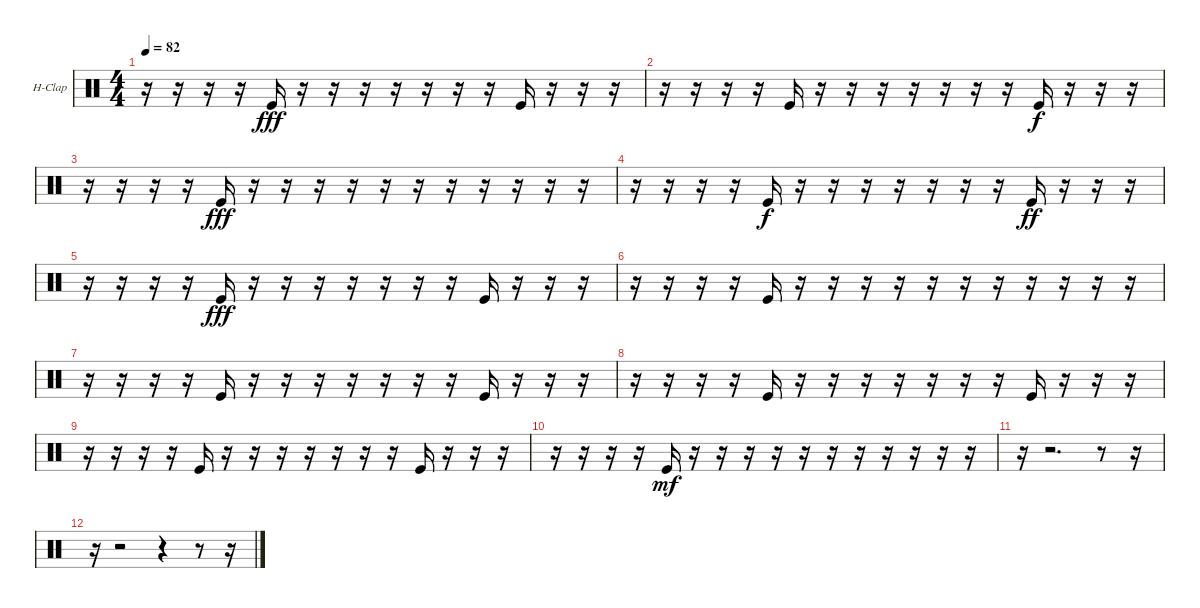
\bracketExtendMode groupsimilarinstruments
\firstSystemTrackNameOrientation horizontal
\otherSystemsTrackNameOrientation horizontal
\track ("Hand Clap" "H-Clap") {instrument percussion}
\staff {score}
\articulation defaults
\ts (4 4)
\tempo 82
\clef neutral
\ks c
r.16{dy mf} r.16 r.16 r.16 "Kick (hit)".16{dy fff} r.16 r.16 r.16 r.16 r.16 r.16 r.16 "Kick (hit)".16 r.16 r.16 r.16 |
r.16 r.16 r.16 r.16 "Kick (hit)".16 r.16 r.16 r.16 r.16 r.16 r.16 r.16 "Kick (hit)".16{dy f} r.16 r.16 r.16 |
r.16 r.16 r.16 r.16 "Kick (hit)".16{dy fff} r.16 r.16 r.16 r.16 r.16 r.16 r.16 r.16 r.16 r.16 r.16 |
r.16 r.16 r.16 r.16 "Kick (hit)".16{dy f} r.16 r.16 r.16 r.16 r.16 r.16 r.16 "Kick (hit)".16{dy ff} r.16 r.16 r.16 |
r.16 r.16 r.16 r.16 "Kick (hit)".16{dy fff} r.16 r.16 r.16 r.16 r.16 r.16 r.16 "Kick (hit)".16 r.16 r.16 r.16 |
r.16 r.16 r.16 r.16 "Kick (hit)".16 r.16 r.16 r.16 r.16 r.16 r.16 r.16 r.16 r.16 r.16 r.16 |
r.16 r.16 r.16 r.16 "Kick (hit)".16 r.16 r.16 r.16 r.16 r.16 r.16 r.16 "Kick (hit)".16 r.16 r.16 r.16 |
r.16 r.16 r.16 r.16 "Kick (hit)".16 r.16 r.16 r.16 r.16 r.16 r.16 r.16 "Kick (hit)".16 r.16 r.16 r.16 |
r.16 r.16 r.16 r.16 "Kick (hit)".16 r.16 r.16 r.16 r.16 r.16 r.16 r.16 "Kick (hit)".16 r.16 r.16 r.16 |
r.16 r.16 r.16 r.16 "Kick (hit)".16{dy mf} r.16 r.16 r.16 r.16 r.16 r.16 r.16 r.16 r.16 r.16 r.16 |
r.16 r.2{d} r.8 r.16 |
r.16 r.2 r.4 r.8 r.16
